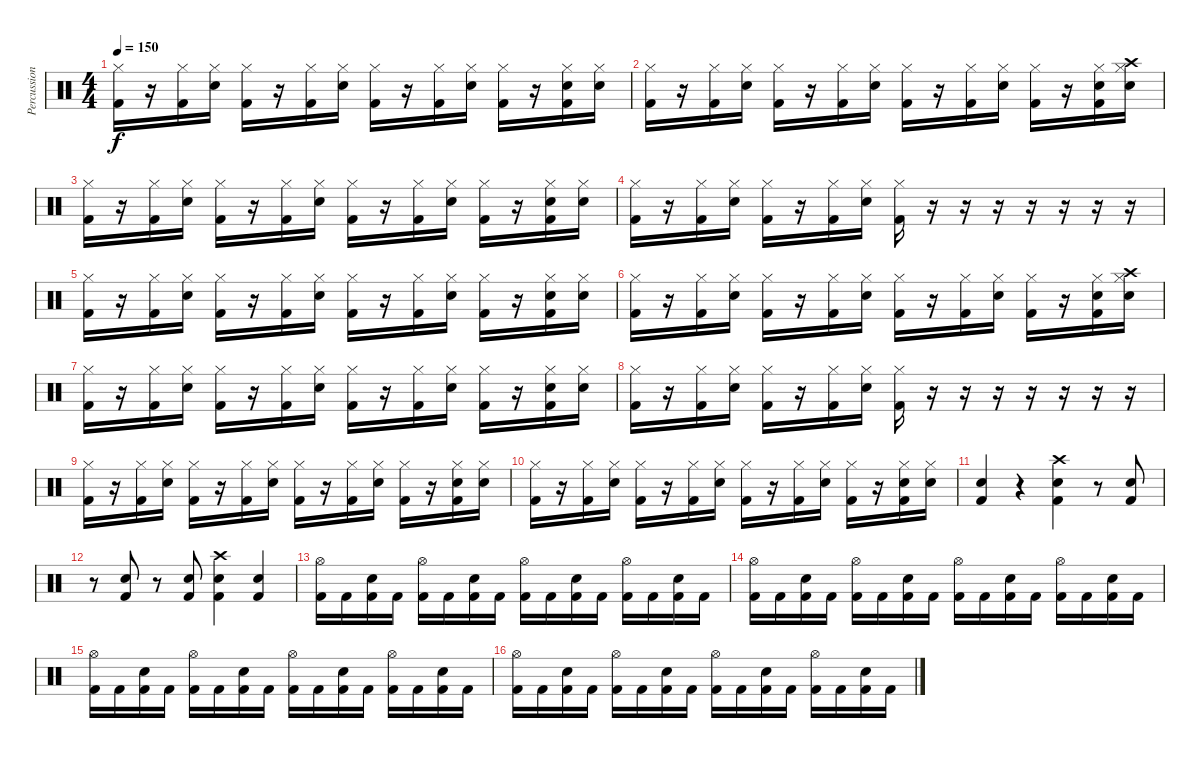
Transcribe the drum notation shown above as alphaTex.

\track ("Percussions" "Percussion") {instrument percussion}
\staff {score}
\articulation defaults
\ts (4 4)
\tempo 150
\clef neutral
\ks c
("Hi-Hat (closed)" "Kick (hit) 2").16{dy f} r.16 ("Hi-Hat (closed)" "Kick (hit) 2").16 ("Hi-Hat (closed)" "Snare (hit) 2").16 ("Hi-Hat (closed)" "Kick (hit) 2").16 r.16 ("Hi-Hat (closed)" "Kick (hit) 2").16 ("Hi-Hat (closed)" "Snare (hit) 2").16 ("Hi-Hat (closed)" "Kick (hit) 2").16 r.16 ("Hi-Hat (closed)" "Kick (hit) 2").16 ("Hi-Hat (closed)" "Snare (hit) 2").16 ("Hi-Hat (closed)" "Kick (hit) 2").16 r.16 ("Hi-Hat (closed)" "Snare (hit) 2" "Kick (hit) 2").16 ("Hi-Hat (closed)" "Snare (hit) 2").16 |
("Hi-Hat (closed)" "Kick (hit) 2").16 r.16 ("Hi-Hat (closed)" "Kick (hit) 2").16 ("Hi-Hat (closed)" "Snare (hit) 2").16 ("Hi-Hat (closed)" "Kick (hit) 2").16 r.16 ("Hi-Hat (closed)" "Kick (hit) 2").16 ("Hi-Hat (closed)" "Snare (hit) 2").16 ("Hi-Hat (closed)" "Kick (hit) 2").16 r.16 ("Hi-Hat (closed)" "Kick (hit) 2").16 ("Hi-Hat (closed)" "Snare (hit) 2").16 ("Hi-Hat (closed)" "Kick (hit) 2").16 r.16 ("Hi-Hat (closed)" "Snare (hit) 2" "Kick (hit) 2").16 ("Hi-Hat (closed)" "Crash high (hit)" "Snare (hit) 2").16 |
("Hi-Hat (closed)" "Kick (hit) 2").16 r.16 ("Hi-Hat (closed)" "Kick (hit) 2").16 ("Hi-Hat (closed)" "Snare (hit) 2").16 ("Hi-Hat (closed)" "Kick (hit) 2").16 r.16 ("Hi-Hat (closed)" "Kick (hit) 2").16 ("Hi-Hat (closed)" "Snare (hit) 2").16 ("Hi-Hat (closed)" "Kick (hit) 2").16 r.16 ("Hi-Hat (closed)" "Kick (hit) 2").16 ("Hi-Hat (closed)" "Snare (hit) 2").16 ("Hi-Hat (closed)" "Kick (hit) 2").16 r.16 ("Hi-Hat (closed)" "Snare (hit) 2" "Kick (hit) 2").16 ("Hi-Hat (closed)" "Snare (hit) 2").16 |
("Hi-Hat (closed)" "Kick (hit) 2").16 r.16 ("Hi-Hat (closed)" "Kick (hit) 2").16 ("Hi-Hat (closed)" "Snare (hit) 2").16 ("Hi-Hat (closed)" "Kick (hit) 2").16 r.16 ("Hi-Hat (closed)" "Kick (hit) 2").16 ("Hi-Hat (closed)" "Snare (hit) 2").16 ("Hi-Hat (closed)" "Kick (hit) 2").16 r.16 r.16 r.16 r.16 r.16 r.16 r.16 |
("Hi-Hat (closed)" "Kick (hit) 2").16 r.16 ("Hi-Hat (closed)" "Kick (hit) 2").16 ("Hi-Hat (closed)" "Snare (hit) 2").16 ("Hi-Hat (closed)" "Kick (hit) 2").16 r.16 ("Hi-Hat (closed)" "Kick (hit) 2").16 ("Hi-Hat (closed)" "Snare (hit) 2").16 ("Hi-Hat (closed)" "Kick (hit) 2").16 r.16 ("Hi-Hat (closed)" "Kick (hit) 2").16 ("Hi-Hat (closed)" "Snare (hit) 2").16 ("Hi-Hat (closed)" "Kick (hit) 2").16 r.16 ("Hi-Hat (closed)" "Snare (hit) 2" "Kick (hit) 2").16 ("Hi-Hat (closed)" "Snare (hit) 2").16 |
("Hi-Hat (closed)" "Kick (hit) 2").16 r.16 ("Hi-Hat (closed)" "Kick (hit) 2").16 ("Hi-Hat (closed)" "Snare (hit) 2").16 ("Hi-Hat (closed)" "Kick (hit) 2").16 r.16 ("Hi-Hat (closed)" "Kick (hit) 2").16 ("Hi-Hat (closed)" "Snare (hit) 2").16 ("Hi-Hat (closed)" "Kick (hit) 2").16 r.16 ("Hi-Hat (closed)" "Kick (hit) 2").16 ("Hi-Hat (closed)" "Snare (hit) 2").16 ("Hi-Hat (closed)" "Kick (hit) 2").16 r.16 ("Hi-Hat (closed)" "Snare (hit) 2" "Kick (hit) 2").16 ("Hi-Hat (closed)" "Crash high (hit)" "Snare (hit) 2").16 |
("Hi-Hat (closed)" "Kick (hit) 2").16 r.16 ("Hi-Hat (closed)" "Kick (hit) 2").16 ("Hi-Hat (closed)" "Snare (hit) 2").16 ("Hi-Hat (closed)" "Kick (hit) 2").16 r.16 ("Hi-Hat (closed)" "Kick (hit) 2").16 ("Hi-Hat (closed)" "Snare (hit) 2").16 ("Hi-Hat (closed)" "Kick (hit) 2").16 r.16 ("Hi-Hat (closed)" "Kick (hit) 2").16 ("Hi-Hat (closed)" "Snare (hit) 2").16 ("Hi-Hat (closed)" "Kick (hit) 2").16 r.16 ("Hi-Hat (closed)" "Snare (hit) 2" "Kick (hit) 2").16 ("Hi-Hat (closed)" "Snare (hit) 2").16 |
("Hi-Hat (closed)" "Kick (hit) 2").16 r.16 ("Hi-Hat (closed)" "Kick (hit) 2").16 ("Hi-Hat (closed)" "Snare (hit) 2").16 ("Hi-Hat (closed)" "Kick (hit) 2").16 r.16 ("Hi-Hat (closed)" "Kick (hit) 2").16 ("Hi-Hat (closed)" "Snare (hit) 2").16 ("Hi-Hat (closed)" "Kick (hit) 2").16 r.16 r.16 r.16 r.16 r.16 r.16 r.16 |
("Hi-Hat (closed)" "Kick (hit) 2").16 r.16 ("Hi-Hat (closed)" "Kick (hit) 2").16 ("Hi-Hat (closed)" "Snare (hit) 2").16 ("Hi-Hat (closed)" "Kick (hit) 2").16 r.16 ("Hi-Hat (closed)" "Kick (hit) 2").16 ("Hi-Hat (closed)" "Snare (hit) 2").16 ("Hi-Hat (closed)" "Kick (hit) 2").16 r.16 ("Hi-Hat (closed)" "Kick (hit) 2").16 ("Hi-Hat (closed)" "Snare (hit) 2").16 ("Hi-Hat (closed)" "Kick (hit) 2").16 r.16 ("Hi-Hat (closed)" "Snare (hit) 2" "Kick (hit) 2").16 ("Hi-Hat (closed)" "Snare (hit) 2").16 |
("Hi-Hat (closed)" "Kick (hit) 2").16 r.16 ("Hi-Hat (closed)" "Kick (hit) 2").16 ("Hi-Hat (closed)" "Snare (hit) 2").16 ("Hi-Hat (closed)" "Kick (hit) 2").16 r.16 ("Hi-Hat (closed)" "Kick (hit) 2").16 ("Hi-Hat (closed)" "Snare (hit) 2").16 ("Hi-Hat (closed)" "Kick (hit) 2").16 r.16 ("Hi-Hat (closed)" "Kick (hit) 2").16 ("Hi-Hat (closed)" "Snare (hit) 2").16 ("Hi-Hat (closed)" "Kick (hit) 2").16 r.16 ("Hi-Hat (closed)" "Snare (hit) 2" "Kick (hit) 2").16 ("Hi-Hat (closed)" "Snare (hit) 2").16 |
("Snare (hit) 2" "Kick (hit) 2").4 r.4 ("Crash high (hit)" "Snare (hit) 2" "Kick (hit) 2").4 r.8 ("Snare (hit) 2" "Kick (hit) 2").8 |
r.8 ("Snare (hit) 2" "Kick (hit) 2").8 r.8 ("Snare (hit) 2" "Kick (hit) 2").8 ("Crash high (hit)" "Snare (hit) 2" "Kick (hit) 2").4 ("Snare (hit) 2" "Kick (hit) 2").4 |
("Hi-Hat (open)" "Kick (hit) 2").16 "Kick (hit) 2".16 ("Snare (hit) 2" "Kick (hit) 2").16 "Kick (hit) 2".16 ("Hi-Hat (open)" "Kick (hit) 2").16 "Kick (hit) 2".16 ("Snare (hit) 2" "Kick (hit) 2").16 "Kick (hit) 2".16 ("Hi-Hat (open)" "Kick (hit) 2").16 "Kick (hit) 2".16 ("Snare (hit) 2" "Kick (hit) 2").16 "Kick (hit) 2".16 ("Hi-Hat (open)" "Kick (hit) 2").16 "Kick (hit) 2".16 ("Snare (hit) 2" "Kick (hit) 2").16 "Kick (hit) 2".16 |
("Hi-Hat (open)" "Kick (hit) 2").16 "Kick (hit) 2".16 ("Snare (hit) 2" "Kick (hit) 2").16 "Kick (hit) 2".16 ("Hi-Hat (open)" "Kick (hit) 2").16 "Kick (hit) 2".16 ("Snare (hit) 2" "Kick (hit) 2").16 "Kick (hit) 2".16 ("Hi-Hat (open)" "Kick (hit) 2").16 "Kick (hit) 2".16 ("Snare (hit) 2" "Kick (hit) 2").16 "Kick (hit) 2".16 ("Hi-Hat (open)" "Kick (hit) 2").16 "Kick (hit) 2".16 ("Snare (hit) 2" "Kick (hit) 2").16 "Kick (hit) 2".16 |
("Hi-Hat (open)" "Kick (hit) 2").16 "Kick (hit) 2".16 ("Snare (hit) 2" "Kick (hit) 2").16 "Kick (hit) 2".16 ("Hi-Hat (open)" "Kick (hit) 2").16 "Kick (hit) 2".16 ("Snare (hit) 2" "Kick (hit) 2").16 "Kick (hit) 2".16 ("Hi-Hat (open)" "Kick (hit) 2").16 "Kick (hit) 2".16 ("Snare (hit) 2" "Kick (hit) 2").16 "Kick (hit) 2".16 ("Hi-Hat (open)" "Kick (hit) 2").16 "Kick (hit) 2".16 ("Snare (hit) 2" "Kick (hit) 2").16 "Kick (hit) 2".16 |
("Hi-Hat (open)" "Kick (hit) 2").16 "Kick (hit) 2".16 ("Snare (hit) 2" "Kick (hit) 2").16 "Kick (hit) 2".16 ("Hi-Hat (open)" "Kick (hit) 2").16 "Kick (hit) 2".16 ("Snare (hit) 2" "Kick (hit) 2").16 "Kick (hit) 2".16 ("Hi-Hat (open)" "Kick (hit) 2").16 "Kick (hit) 2".16 ("Snare (hit) 2" "Kick (hit) 2").16 "Kick (hit) 2".16 ("Hi-Hat (open)" "Kick (hit) 2").16 "Kick (hit) 2".16 ("Snare (hit) 2" "Kick (hit) 2").16 "Kick (hit) 2".16
